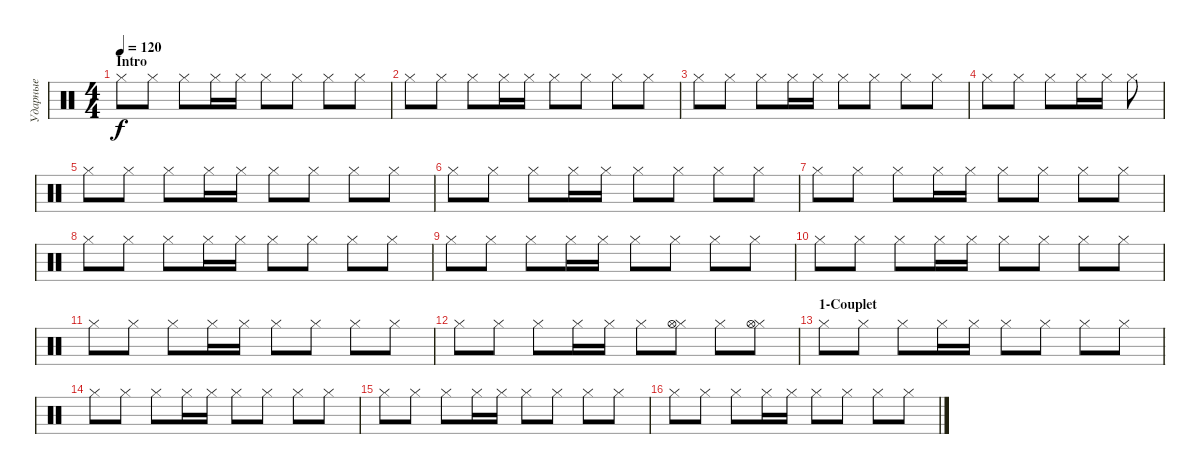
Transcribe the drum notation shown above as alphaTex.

\track ("Ударные" "Ударные") {instrument percussion}
\staff {score}
\articulation defaults
\ts (4 4)
\section ("" "Intro")
\tempo 120
\tempo 100
\tempo 120
\clef neutral
\ks c "Hi-Hat (closed)".8{dy f} "Hi-Hat (closed)".8 "Hi-Hat (closed)".8 "Hi-Hat (closed)".16 "Hi-Hat (closed)".16 "Hi-Hat (closed)".8 "Hi-Hat (closed)".8 "Hi-Hat (closed)".8 "Hi-Hat (closed)".8
|
"Hi-Hat (closed)".8 "Hi-Hat (closed)".8 "Hi-Hat (closed)".8 "Hi-Hat (closed)".16 "Hi-Hat (closed)".16 "Hi-Hat (closed)".8 "Hi-Hat (closed)".8 "Hi-Hat (closed)".8 "Hi-Hat (closed)".8 |
"Hi-Hat (closed)".8 "Hi-Hat (closed)".8 "Hi-Hat (closed)".8 "Hi-Hat (closed)".16 "Hi-Hat (closed)".16 "Hi-Hat (closed)".8 "Hi-Hat (closed)".8 "Hi-Hat (closed)".8 "Hi-Hat (closed)".8 |
"Hi-Hat (closed)".8 "Hi-Hat (closed)".8 "Hi-Hat (closed)".8 "Hi-Hat (closed)".16 "Hi-Hat (closed)".16 "Hi-Hat (closed)".8 |
"Hi-Hat (closed)".8 "Hi-Hat (closed)".8 "Hi-Hat (closed)".8 "Hi-Hat (closed)".16 "Hi-Hat (closed)".16 "Hi-Hat (closed)".8 "Hi-Hat (closed)".8 "Hi-Hat (closed)".8 "Hi-Hat (closed)".8 |
"Hi-Hat (closed)".8 "Hi-Hat (closed)".8 "Hi-Hat (closed)".8 "Hi-Hat (closed)".16 "Hi-Hat (closed)".16 "Hi-Hat (closed)".8 "Hi-Hat (closed)".8 "Hi-Hat (closed)".8 "Hi-Hat (closed)".8 |
"Hi-Hat (closed)".8 "Hi-Hat (closed)".8 "Hi-Hat (closed)".8 "Hi-Hat (closed)".16 "Hi-Hat (closed)".16 "Hi-Hat (closed)".8 "Hi-Hat (closed)".8 "Hi-Hat (closed)".8 "Hi-Hat (closed)".8 |
"Hi-Hat (closed)".8 "Hi-Hat (closed)".8 "Hi-Hat (closed)".8 "Hi-Hat (closed)".16 "Hi-Hat (closed)".16 "Hi-Hat (closed)".8 "Hi-Hat (closed)".8 "Hi-Hat (closed)".8 "Hi-Hat (closed)".8 |
"Hi-Hat (closed)".8 "Hi-Hat (closed)".8 "Hi-Hat (closed)".8 "Hi-Hat (closed)".16 "Hi-Hat (closed)".16 "Hi-Hat (closed)".8 "Hi-Hat (closed)".8 "Hi-Hat (closed)".8 "Hi-Hat (closed)".8 |
"Hi-Hat (closed)".8 "Hi-Hat (closed)".8 "Hi-Hat (closed)".8 "Hi-Hat (closed)".16 "Hi-Hat (closed)".16 "Hi-Hat (closed)".8 "Hi-Hat (closed)".8 "Hi-Hat (closed)".8 "Hi-Hat (closed)".8 |
"Hi-Hat (closed)".8 "Hi-Hat (closed)".8 "Hi-Hat (closed)".8 "Hi-Hat (closed)".16 "Hi-Hat (closed)".16 "Hi-Hat (closed)".8 "Hi-Hat (closed)".8 "Hi-Hat (closed)".8 "Hi-Hat (closed)".8 |
"Hi-Hat (closed)".8 "Hi-Hat (closed)".8 "Hi-Hat (closed)".8 "Hi-Hat (closed)".16 "Hi-Hat (closed)".16 "Hi-Hat (closed)".8 ("Hi-Hat (closed)" "Hi-Hat (open)").8 "Hi-Hat (closed)".8 ("Hi-Hat (closed)" "Hi-Hat (open)").8 |
\section ("" "1-Couplet")
"Hi-Hat (closed)".8 "Hi-Hat (closed)".8 "Hi-Hat (closed)".8 "Hi-Hat (closed)".16 "Hi-Hat (closed)".16 "Hi-Hat (closed)".8 "Hi-Hat (closed)".8 "Hi-Hat (closed)".8 "Hi-Hat (closed)".8 |
"Hi-Hat (closed)".8 "Hi-Hat (closed)".8 "Hi-Hat (closed)".8 "Hi-Hat (closed)".16 "Hi-Hat (closed)".16 "Hi-Hat (closed)".8 "Hi-Hat (closed)".8 "Hi-Hat (closed)".8 "Hi-Hat (closed)".8 |
"Hi-Hat (closed)".8 "Hi-Hat (closed)".8 "Hi-Hat (closed)".8 "Hi-Hat (closed)".16 "Hi-Hat (closed)".16 "Hi-Hat (closed)".8 "Hi-Hat (closed)".8 "Hi-Hat (closed)".8 "Hi-Hat (closed)".8 |
"Hi-Hat (closed)".8 "Hi-Hat (closed)".8 "Hi-Hat (closed)".8 "Hi-Hat (closed)".16 "Hi-Hat (closed)".16 "Hi-Hat (closed)".8 "Hi-Hat (closed)".8 "Hi-Hat (closed)".8 "Hi-Hat (closed)".8
